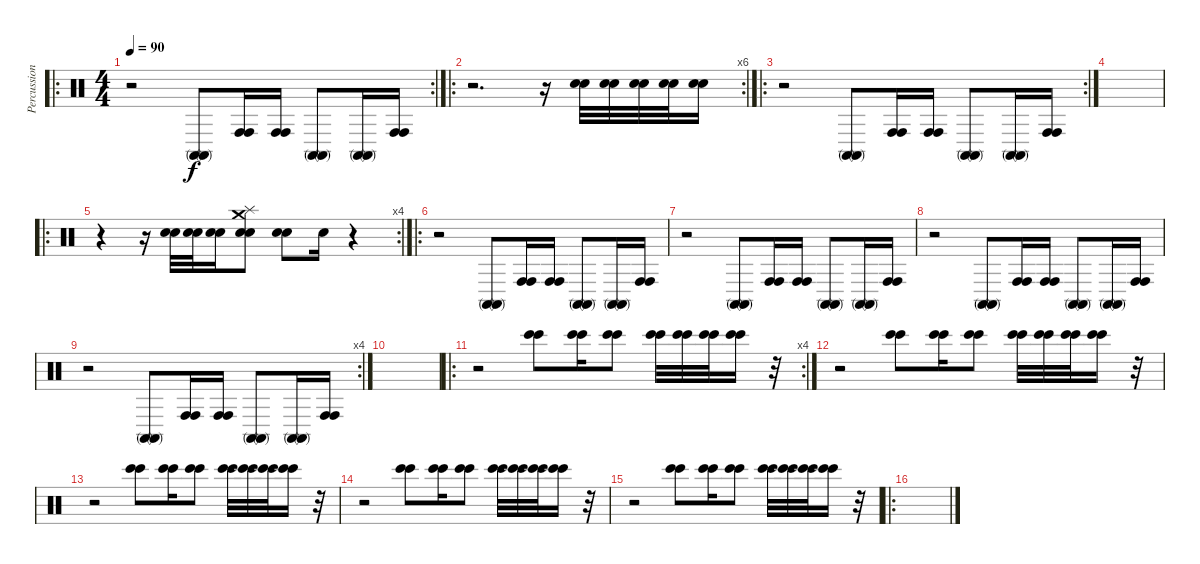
\track ("Percussions" "Percussion") {instrument percussion}
\staff {score}
\articulation defaults
\ro
\rc 2
\ts (4 4)
\tempo 90
\clef neutral
\ks c
r.2{dy f} ("Conga high (mute)" "Conga high (mute)").8 ("Conga high (hit)" "Conga high (hit)").16 ("Conga high (hit)" "Conga high (hit)").16 ("Conga high (mute)" "Conga high (mute)").8 ("Conga high (mute)" "Conga high (mute)").16 ("Conga high (hit)" "Conga high (hit)").16 |
\ro
\rc 6
r.2{d} r.16 ("Snare (hit) 2" "Snare (hit) 2").32 ("Snare (hit) 2" "Snare (hit) 2").32 ("Snare (hit) 2" "Snare (hit) 2").32 ("Snare (hit) 2" "Snare (hit) 2").32 ("Snare (hit) 2" "Snare (hit) 2").16 |
\ro
\rc 2
r.2 ("Conga high (mute)" "Conga high (mute)").8 ("Conga high (hit)" "Conga high (hit)").16 ("Conga high (hit)" "Conga high (hit)").16 ("Conga high (mute)" "Conga high (mute)").8 ("Conga high (mute)" "Conga high (mute)").16 ("Conga high (hit)" "Conga high (hit)").16 |
|
\ro
\rc 4
r.4 r.16 ("Snare (hit) 2" "Snare (hit) 2").32 ("Snare (hit) 2" "Snare (hit) 2").32 ("Snare (hit) 2" "Snare (hit) 2").16 ("Splash (hit)" "Snare (hit) 2" "Snare (hit) 2" "Crash medium (hit)").8 ("Snare (hit) 2" "Snare (hit) 2").8 "Snare (hit) 2".16 r.4 |
\ro
r.2 ("Conga high (mute)" "Conga high (mute)").8 ("Conga high (hit)" "Conga high (hit)").16 ("Conga high (hit)" "Conga high (hit)").16 ("Conga high (mute)" "Conga high (mute)").8 ("Conga high (mute)" "Conga high (mute)").16 ("Conga high (hit)" "Conga high (hit)").16 |
r.2 ("Conga high (mute)" "Conga high (mute)").8 ("Conga high (hit)" "Conga high (hit)").16 ("Conga high (hit)" "Conga high (hit)").16 ("Conga high (mute)" "Conga high (mute)").8 ("Conga high (mute)" "Conga high (mute)").16 ("Conga high (hit)" "Conga high (hit)").16 |
r.2 ("Conga high (mute)" "Conga high (mute)").8 ("Conga high (hit)" "Conga high (hit)").16 ("Conga high (hit)" "Conga high (hit)").16 ("Conga high (mute)" "Conga high (mute)").8 ("Conga high (mute)" "Conga high (mute)").16 ("Conga high (hit)" "Conga high (hit)").16 |
\rc 4
r.2 ("Conga high (mute)" "Conga high (mute)").8 ("Conga high (hit)" "Conga high (hit)").16 ("Conga high (hit)" "Conga high (hit)").16 ("Conga high (mute)" "Conga high (mute)").8 ("Conga high (mute)" "Conga high (mute)").16 ("Conga high (hit)" "Conga high (hit)").16 |
|
\ro
\rc 4
r.2 ("Bongo High (hit)" "Bongo High (hit)").8 ("Bongo High (hit)" "Bongo High (hit)").16 ("Bongo High (hit)" "Bongo High (hit)").8 ("Bongo High (hit)" "Bongo High (hit)").32 ("Bongo High (hit)" "Bongo High (hit)").32 ("Bongo High (hit)" "Bongo High (hit)").32 ("Bongo High (hit)" "Bongo High (hit)").16 r.32 |
r.2 ("Bongo High (hit)" "Bongo High (hit)").8 ("Bongo High (hit)" "Bongo High (hit)").16 ("Bongo High (hit)" "Bongo High (hit)").8 ("Bongo High (hit)" "Bongo High (hit)").32 ("Bongo High (hit)" "Bongo High (hit)").32 ("Bongo High (hit)" "Bongo High (hit)").32 ("Bongo High (hit)" "Bongo High (hit)").16 r.32 |
r.2 ("Bongo High (hit)" "Bongo High (hit)").8 ("Bongo High (hit)" "Bongo High (hit)").16 ("Bongo High (hit)" "Bongo High (hit)").8 ("Bongo High (hit)" "Bongo High (hit)").32 ("Bongo High (hit)" "Bongo High (hit)").32 ("Bongo High (hit)" "Bongo High (hit)").32 ("Bongo High (hit)" "Bongo High (hit)").16 r.32 |
r.2 ("Bongo High (hit)" "Bongo High (hit)").8 ("Bongo High (hit)" "Bongo High (hit)").16 ("Bongo High (hit)" "Bongo High (hit)").8 ("Bongo High (hit)" "Bongo High (hit)").32 ("Bongo High (hit)" "Bongo High (hit)").32 ("Bongo High (hit)" "Bongo High (hit)").32 ("Bongo High (hit)" "Bongo High (hit)").16 r.32 |
r.2 ("Bongo High (hit)" "Bongo High (hit)").8 ("Bongo High (hit)" "Bongo High (hit)").16 ("Bongo High (hit)" "Bongo High (hit)").8 ("Bongo High (hit)" "Bongo High (hit)").32 ("Bongo High (hit)" "Bongo High (hit)").32 ("Bongo High (hit)" "Bongo High (hit)").32 ("Bongo High (hit)" "Bongo High (hit)").16 r.32 |
\ro
